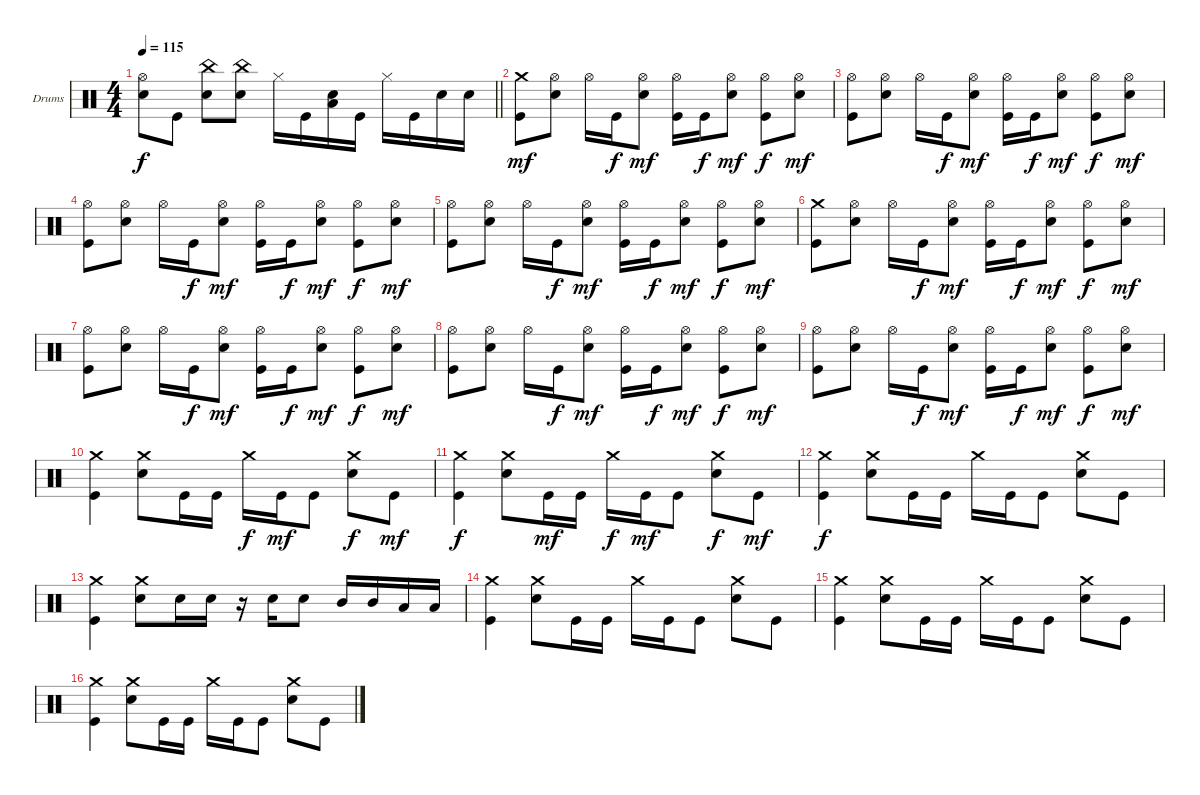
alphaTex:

\bracketExtendMode groupsimilarinstruments
\firstSystemTrackNameOrientation horizontal
\otherSystemsTrackNameOrientation horizontal
\track ("Drumkit" "Drums") {instrument percussion}
\staff {score}
\articulation defaults
\ts (4 4)
\tempo 115
\clef neutral
\barLineRight lightlight
\ks c
("Hi-Hat (open)" "Snare (hit) 2").8{dy f} "Kick (hit)".8 ("China (hit)" "Snare (hit) 2").8 ("China (hit)" "Snare (hit) 2").8 "Hi-Hat (closed)".16 "Kick (hit)".16 ("Snare (hit) 2" "Low Tom (hit)").16 "Kick (hit)".16 "Hi-Hat (closed)".16 "Kick (hit)".16 "Snare (hit) 2".16 "Snare (hit) 2".16 |
("Crash medium (hit)" "Kick (hit)").8{dy mf} ("Hi-Hat (open)" "Snare (hit) 2").8 "Hi-Hat (open)".16 "Kick (hit)".16{dy f} ("Hi-Hat (open)" "Snare (hit) 2").8{dy mf} ("Hi-Hat (open)" "Kick (hit)").16 "Kick (hit)".16{dy f} ("Hi-Hat (open)" "Snare (hit) 2").8{dy mf} ("Kick (hit)" "Hi-Hat (open)").8{dy f} ("Hi-Hat (open)" "Snare (hit) 2").8{dy mf} |
("Hi-Hat (open)" "Kick (hit)").8 ("Hi-Hat (open)" "Snare (hit) 2").8 "Hi-Hat (open)".16 "Kick (hit)".16{dy f} ("Hi-Hat (open)" "Snare (hit) 2").8{dy mf} ("Hi-Hat (open)" "Kick (hit)").16 "Kick (hit)".16{dy f} ("Hi-Hat (open)" "Snare (hit) 2").8{dy mf} ("Kick (hit)" "Hi-Hat (open)").8{dy f} ("Hi-Hat (open)" "Snare (hit) 2").8{dy mf} |
("Hi-Hat (open)" "Kick (hit)").8 ("Hi-Hat (open)" "Snare (hit) 2").8 "Hi-Hat (open)".16 "Kick (hit)".16{dy f} ("Hi-Hat (open)" "Snare (hit) 2").8{dy mf} ("Hi-Hat (open)" "Kick (hit)").16 "Kick (hit)".16{dy f} ("Hi-Hat (open)" "Snare (hit) 2").8{dy mf} ("Kick (hit)" "Hi-Hat (open)").8{dy f} ("Hi-Hat (open)" "Snare (hit) 2").8{dy mf} |
("Hi-Hat (open)" "Kick (hit)").8 ("Hi-Hat (open)" "Snare (hit) 2").8 "Hi-Hat (open)".16 "Kick (hit)".16{dy f} ("Hi-Hat (open)" "Snare (hit) 2").8{dy mf} ("Hi-Hat (open)" "Kick (hit)").16 "Kick (hit)".16{dy f} ("Hi-Hat (open)" "Snare (hit) 2").8{dy mf} ("Kick (hit)" "Hi-Hat (open)").8{dy f} ("Hi-Hat (open)" "Snare (hit) 2").8{dy mf} |
("Crash medium (hit)" "Kick (hit)").8 ("Hi-Hat (open)" "Snare (hit) 2").8 "Hi-Hat (open)".16 "Kick (hit)".16{dy f} ("Hi-Hat (open)" "Snare (hit) 2").8{dy mf} ("Hi-Hat (open)" "Kick (hit)").16 "Kick (hit)".16{dy f} ("Hi-Hat (open)" "Snare (hit) 2").8{dy mf} ("Kick (hit)" "Hi-Hat (open)").8{dy f} ("Hi-Hat (open)" "Snare (hit) 2").8{dy mf} |
("Hi-Hat (open)" "Kick (hit)").8 ("Hi-Hat (open)" "Snare (hit) 2").8 "Hi-Hat (open)".16 "Kick (hit)".16{dy f} ("Hi-Hat (open)" "Snare (hit) 2").8{dy mf} ("Hi-Hat (open)" "Kick (hit)").16 "Kick (hit)".16{dy f} ("Hi-Hat (open)" "Snare (hit) 2").8{dy mf} ("Kick (hit)" "Hi-Hat (open)").8{dy f} ("Hi-Hat (open)" "Snare (hit) 2").8{dy mf} |
("Hi-Hat (open)" "Kick (hit)").8 ("Hi-Hat (open)" "Snare (hit) 2").8 "Hi-Hat (open)".16 "Kick (hit)".16{dy f} ("Hi-Hat (open)" "Snare (hit) 2").8{dy mf} ("Hi-Hat (open)" "Kick (hit)").16 "Kick (hit)".16{dy f} ("Hi-Hat (open)" "Snare (hit) 2").8{dy mf} ("Kick (hit)" "Hi-Hat (open)").8{dy f} ("Hi-Hat (open)" "Snare (hit) 2").8{dy mf} |
("Hi-Hat (open)" "Kick (hit)").8 ("Hi-Hat (open)" "Snare (hit) 2").8 "Hi-Hat (open)".16 "Kick (hit)".16{dy f} ("Hi-Hat (open)" "Snare (hit) 2").8{dy mf} ("Hi-Hat (open)" "Kick (hit)").16 "Kick (hit)".16{dy f} ("Hi-Hat (open)" "Snare (hit) 2").8{dy mf} ("Kick (hit)" "Hi-Hat (open)").8{dy f} ("Hi-Hat (open)" "Snare (hit) 2").8{dy mf} |
("Crash medium (hit)" "Kick (hit)").4 ("Crash medium (hit)" "Snare (hit) 2").8 "Kick (hit)".16 "Kick (hit)".16 "Crash medium (hit)".16{dy f} "Kick (hit)".16{dy mf} "Kick (hit)".8 ("Crash medium (hit)" "Snare (hit) 2").8{dy f} "Kick (hit)".8{dy mf} |
("Crash medium (hit)" "Kick (hit)").4{dy f} ("Crash medium (hit)" "Snare (hit) 2").8 "Kick (hit)".16{dy mf} "Kick (hit)".16 "Crash medium (hit)".16{dy f} "Kick (hit)".16{dy mf} "Kick (hit)".8 ("Crash medium (hit)" "Snare (hit) 2").8{dy f} "Kick (hit)".8{dy mf} |
("Crash medium (hit)" "Kick (hit)").4{dy f} ("Crash medium (hit)" "Snare (hit) 2").8 "Kick (hit)".16 "Kick (hit)".16 "Crash medium (hit)".16 "Kick (hit)".16 "Kick (hit)".8 ("Crash medium (hit)" "Snare (hit) 2").8 "Kick (hit)".8 |
("Crash medium (hit)" "Kick (hit)").4 ("Crash medium (hit)" "Snare (hit) 2").8 "Snare (hit) 2".16 "Snare (hit) 2".16 r.16 "Snare (hit) 2".16 "Snare (hit) 2".8 "Mid Tom (hit)".16 "Mid Tom (hit)".16 "Low Tom (hit)".16 "Low Tom (hit)".16 |
("Crash medium (hit)" "Kick (hit)").4 ("Crash medium (hit)" "Snare (hit) 2").8 "Kick (hit)".16 "Kick (hit)".16 "Crash medium (hit)".16 "Kick (hit)".16 "Kick (hit)".8 ("Crash medium (hit)" "Snare (hit) 2").8 "Kick (hit)".8 |
("Crash medium (hit)" "Kick (hit)").4 ("Crash medium (hit)" "Snare (hit) 2").8 "Kick (hit)".16 "Kick (hit)".16 "Crash medium (hit)".16 "Kick (hit)".16 "Kick (hit)".8 ("Crash medium (hit)" "Snare (hit) 2").8 "Kick (hit)".8 |
("Crash medium (hit)" "Kick (hit)").4 ("Crash medium (hit)" "Snare (hit) 2").8 "Kick (hit)".16 "Kick (hit)".16 "Crash medium (hit)".16 "Kick (hit)".16 "Kick (hit)".8 ("Crash medium (hit)" "Snare (hit) 2").8 "Kick (hit)".8
